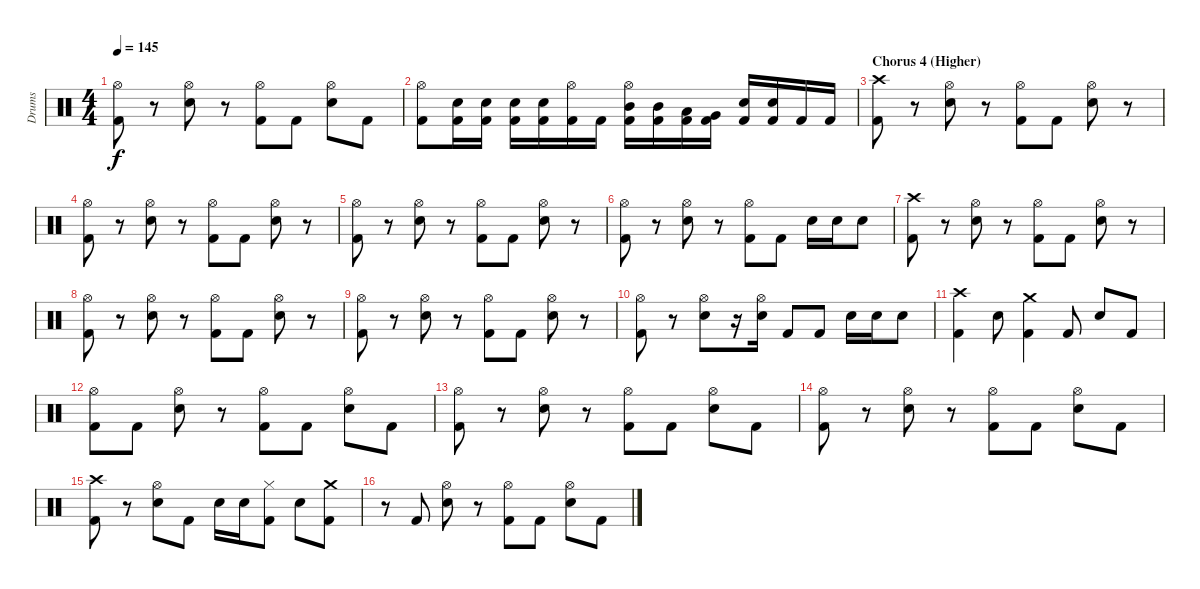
\track ("Drums" "Drums") {instrument percussion}
\staff {score}
\articulation defaults
\ts (4 4)
\tempo 145
\clef neutral
\ks c
("Hi-Hat (open)" "Kick (hit) 2").8{dy f} r.8 ("Hi-Hat (open)" "Snare (hit) 2").8 r.8 ("Hi-Hat (open)" "Kick (hit) 2").8 "Kick (hit) 2".8 ("Hi-Hat (open)" "Snare (hit) 2").8 "Kick (hit) 2".8 |
("Hi-Hat (open)" "Kick (hit) 2").8 ("Snare (hit) 2" "Kick (hit) 2").16 ("Snare (hit) 2" "Kick (hit) 2").16 ("Snare (hit) 2" "Kick (hit) 2").16 ("Snare (hit) 2" "Kick (hit) 2").16 ("Hi-Hat (open)" "Kick (hit) 2").16 "Kick (hit) 2".16 ("Hi-Hat (open)" "Mid Tom (hit)" "Kick (hit) 2").16 ("Mid Tom (hit)" "Kick (hit) 2").16 ("Low Tom (hit)" "Kick (hit) 2").16 ("Very Low Tom (hit)" "Kick (hit) 2").16 ("Snare (hit) 2" "Kick (hit) 2").16 ("Snare (hit) 2" "Kick (hit) 2").16 "Kick (hit) 2".16 "Kick (hit) 2".16 |
\section ("" "Chorus 4 (Higher)")
("Crash high (hit)" "Kick (hit) 2").8 r.8 ("Hi-Hat (open)" "Snare (hit) 2").8 r.8 ("Hi-Hat (open)" "Kick (hit) 2").8 "Kick (hit) 2".8 ("Hi-Hat (open)" "Snare (hit) 2").8 r.8 |
("Hi-Hat (open)" "Kick (hit) 2").8 r.8 ("Hi-Hat (open)" "Snare (hit) 2").8 r.8 ("Hi-Hat (open)" "Kick (hit) 2").8 "Kick (hit) 2".8 ("Hi-Hat (open)" "Snare (hit) 2").8 r.8 |
("Hi-Hat (open)" "Kick (hit) 2").8 r.8 ("Hi-Hat (open)" "Snare (hit) 2").8 r.8 ("Hi-Hat (open)" "Kick (hit) 2").8 "Kick (hit) 2".8 ("Hi-Hat (open)" "Snare (hit) 2").8 r.8 |
("Hi-Hat (open)" "Kick (hit) 2").8 r.8 ("Hi-Hat (open)" "Snare (hit) 2").8 r.8 ("Hi-Hat (open)" "Kick (hit) 2").8 "Kick (hit) 2".8 "Snare (hit) 2".16 "Snare (hit) 2".16 "Snare (hit) 2".8 |
("Crash high (hit)" "Kick (hit) 2").8 r.8 ("Hi-Hat (open)" "Snare (hit) 2").8 r.8 ("Hi-Hat (open)" "Kick (hit) 2").8 "Kick (hit) 2".8 ("Hi-Hat (open)" "Snare (hit) 2").8 r.8 |
("Hi-Hat (open)" "Kick (hit) 2").8 r.8 ("Hi-Hat (open)" "Snare (hit) 2").8 r.8 ("Hi-Hat (open)" "Kick (hit) 2").8 "Kick (hit) 2".8 ("Hi-Hat (open)" "Snare (hit) 2").8 r.8 |
("Hi-Hat (open)" "Kick (hit) 2").8 r.8 ("Hi-Hat (open)" "Snare (hit) 2").8 r.8 ("Hi-Hat (open)" "Kick (hit) 2").8 "Kick (hit) 2".8 ("Hi-Hat (open)" "Snare (hit) 2").8 r.8 |
("Hi-Hat (open)" "Kick (hit) 2").8 r.8 ("Hi-Hat (open)" "Snare (hit) 2").8 r.16 ("Hi-Hat (open)" "Snare (hit) 2").16 "Kick (hit) 2".8 "Kick (hit) 2".8 "Snare (hit) 2".16 "Snare (hit) 2".16 "Snare (hit) 2".8 |
("Crash high (hit)" "Kick (hit) 2").4 "Snare (hit) 2".8 ("Crash medium (hit)" "Kick (hit) 2").4 "Kick (hit) 2".8 "Snare (hit) 2".8 "Kick (hit) 2".8 |
("Hi-Hat (open)" "Kick (hit) 2").8 "Kick (hit) 2".8 ("Hi-Hat (open)" "Snare (hit) 2").8 r.8 ("Hi-Hat (open)" "Kick (hit) 2").8 "Kick (hit) 2".8 ("Hi-Hat (open)" "Snare (hit) 2").8 "Kick (hit) 2".8 |
("Hi-Hat (open)" "Kick (hit) 2").8 r.8 ("Hi-Hat (open)" "Snare (hit) 2").8 r.8 ("Hi-Hat (open)" "Kick (hit) 2").8 "Kick (hit) 2".8 ("Hi-Hat (open)" "Snare (hit) 2").8 "Kick (hit) 2".8 |
("Hi-Hat (open)" "Kick (hit) 2").8 r.8 ("Hi-Hat (open)" "Snare (hit) 2").8 r.8 ("Hi-Hat (open)" "Kick (hit) 2").8 "Kick (hit) 2".8 ("Hi-Hat (open)" "Snare (hit) 2").8 "Kick (hit) 2".8 |
("Crash high (hit)" "Kick (hit) 2").8 r.8 ("Hi-Hat (open)" "Snare (hit) 2").8 "Kick (hit) 2".8 "Snare (hit) 2".16 "Snare (hit) 2".16 ("Hi-Hat (closed)" "Kick (hit) 2").8 "Snare (hit) 2".8 ("Crash medium (hit)" "Kick (hit) 2").8 |
r.8 "Kick (hit) 2".8 ("Hi-Hat (open)" "Snare (hit) 2").8 r.8 ("Hi-Hat (open)" "Kick (hit) 2").8 "Kick (hit) 2".8 ("Hi-Hat (open)" "Snare (hit) 2").8 "Kick (hit) 2".8
